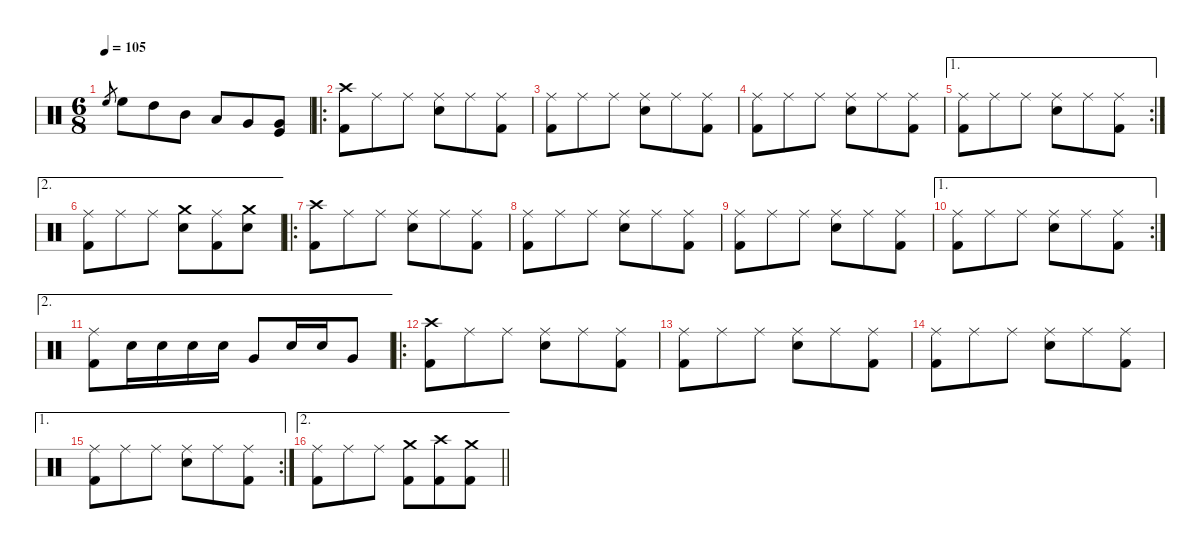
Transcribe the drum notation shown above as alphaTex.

\defaultSystemsLayout 4
\hideDynamics
\bracketExtendMode nobrackets
\singleTrackTrackNamePolicy hidden
\multiTrackTrackNamePolicy hidden
\firstSystemTrackNameMode fullname
\firstSystemTrackNameOrientation horizontal
\otherSystemsTrackNameOrientation horizontal
\track ("Drums" "drm.") {instrument percussion}
\staff {score}
\articulation defaults
\ts (6 8)
\beaming (8 3 3)
\tempo 105
\clef neutral
\ks c "High Floor Tom (hit)".8{gr dy mf beam Up} "High Floor Tom (hit)".8{dy f beam Down} "High Tom (hit)".8{beam Down} "Mid Tom (hit)".8{beam Down} "Low Tom (hit)".8{beam Up} "Very Low Tom (hit)".8{beam Up}
("Very Low Tom (hit)" "Kick (hit)").8{beam Up} |
\ro
("Crash high (hit)" "Kick (hit) 2").8{beam Down} "Ride (middle)".8{beam Down} "Ride (middle)".8{beam Down} ("Ride (middle)" "Snare (hit) 2").8{beam Down} "Ride (middle)".8{beam Down} ("Ride (middle)" "Kick (hit) 2").8{beam Down} |
("Ride (middle)" "Kick (hit) 2").8{beam Down} "Ride (middle)".8{beam Down} "Ride (middle)".8{beam Down} ("Ride (middle)" "Snare (hit) 2").8{beam Down} "Ride (middle)".8{beam Down} ("Ride (middle)" "Kick (hit) 2").8{beam Down} |
("Ride (middle)" "Kick (hit) 2").8{beam Down} "Ride (middle)".8{beam Down} "Ride (middle)".8{beam Down} ("Ride (middle)" "Snare (hit) 2").8{beam Down} "Ride (middle)".8{beam Down} ("Ride (middle)" "Kick (hit) 2").8{beam Down} |
\ae 1
\rc 2
("Ride (middle)" "Kick (hit) 2").8{beam Down} "Ride (middle)".8{beam Down} "Ride (middle)".8{beam Down} ("Ride (middle)" "Snare (hit) 2").8{beam Down} "Ride (middle)".8{beam Down} ("Ride (middle)" "Kick (hit) 2").8{beam Down} |
\ae 2
("Ride (middle)" "Kick (hit) 2").8{beam Down} "Ride (middle)".8{beam Down} "Ride (middle)".8{beam Down} ("Crash medium (hit)" "Snare (hit) 2").8{beam Down} ("Ride (middle)" "Kick (hit) 2").8{beam Down} ("Crash medium (hit)" "Snare (hit) 2").8{beam Down} |
\ro
("Crash high (hit)" "Kick (hit) 2").8{beam Down} "Ride (middle)".8{beam Down} "Ride (middle)".8{beam Down} ("Ride (middle)" "Snare (hit) 2").8{beam Down} "Ride (middle)".8{beam Down} ("Ride (middle)" "Kick (hit) 2").8{beam Down} |
("Ride (middle)" "Kick (hit) 2").8{beam Down} "Ride (middle)".8{beam Down} "Ride (middle)".8{beam Down} ("Ride (middle)" "Snare (hit) 2").8{beam Down} "Ride (middle)".8{beam Down} ("Ride (middle)" "Kick (hit) 2").8{beam Down} |
("Ride (middle)" "Kick (hit) 2").8{beam Down} "Ride (middle)".8{beam Down} "Ride (middle)".8{beam Down} ("Ride (middle)" "Snare (hit) 2").8{beam Down} "Ride (middle)".8{beam Down} ("Ride (middle)" "Kick (hit) 2").8{beam Down} |
\ae 1
\rc 2
("Ride (middle)" "Kick (hit) 2").8{beam Down} "Ride (middle)".8{beam Down} "Ride (middle)".8{beam Down} ("Ride (middle)" "Snare (hit) 2").8{beam Down} "Ride (middle)".8{beam Down} ("Ride (middle)" "Kick (hit) 2").8{beam Down} |
\ae 2
("Ride (middle)" "Kick (hit) 2").8{beam Down} "Snare (hit) 2".16{dy mf beam Down} "Snare (hit) 2".16{dy f beam Down} "Snare (hit) 2".16{beam Down} "Snare (hit) 2".16{dy ff beam Down} "Very Low Tom (hit)".8{beam Up} "Snare (hit) 2".16{dy f beam Up} "Snare (hit) 2".16{dy ff beam Up} "Very Low Tom (hit)".8{beam Up} |
\ro
("Crash high (hit)" "Kick (hit) 2").8{dy f beam Down} "Ride (middle)".8{beam Down} "Ride (middle)".8{beam Down} ("Ride (middle)" "Snare (hit) 2").8{beam Down} "Ride (middle)".8{beam Down} ("Ride (middle)" "Kick (hit) 2").8{beam Down} |
("Ride (middle)" "Kick (hit) 2").8{beam Down} "Ride (middle)".8{beam Down} "Ride (middle)".8{beam Down} ("Ride (middle)" "Snare (hit) 2").8{beam Down} "Ride (middle)".8{beam Down} ("Ride (middle)" "Kick (hit) 2").8{beam Down} |
("Ride (middle)" "Kick (hit) 2").8{beam Down} "Ride (middle)".8{beam Down} "Ride (middle)".8{beam Down} ("Ride (middle)" "Snare (hit) 2").8{beam Down} "Ride (middle)".8{beam Down} ("Ride (middle)" "Kick (hit) 2").8{beam Down} |
\ae 1
\rc 2
("Ride (middle)" "Kick (hit) 2").8{beam Down} "Ride (middle)".8{beam Down} "Ride (middle)".8{beam Down} ("Ride (middle)" "Snare (hit) 2").8{beam Down} "Ride (middle)".8{beam Down} ("Ride (middle)" "Kick (hit) 2").8{beam Down} |
\ae 2
\barLineRight lightlight
("Ride (middle)" "Kick (hit) 2").8{beam Down} "Ride (middle)".8{beam Down} "Ride (middle)".8{beam Down} ("Crash medium (hit)" "Kick (hit) 2").8{beam Down} ("Crash high (hit)" "Kick (hit) 2").8{beam Down} ("Crash medium (hit)" "Kick (hit) 2").8{beam Down}
